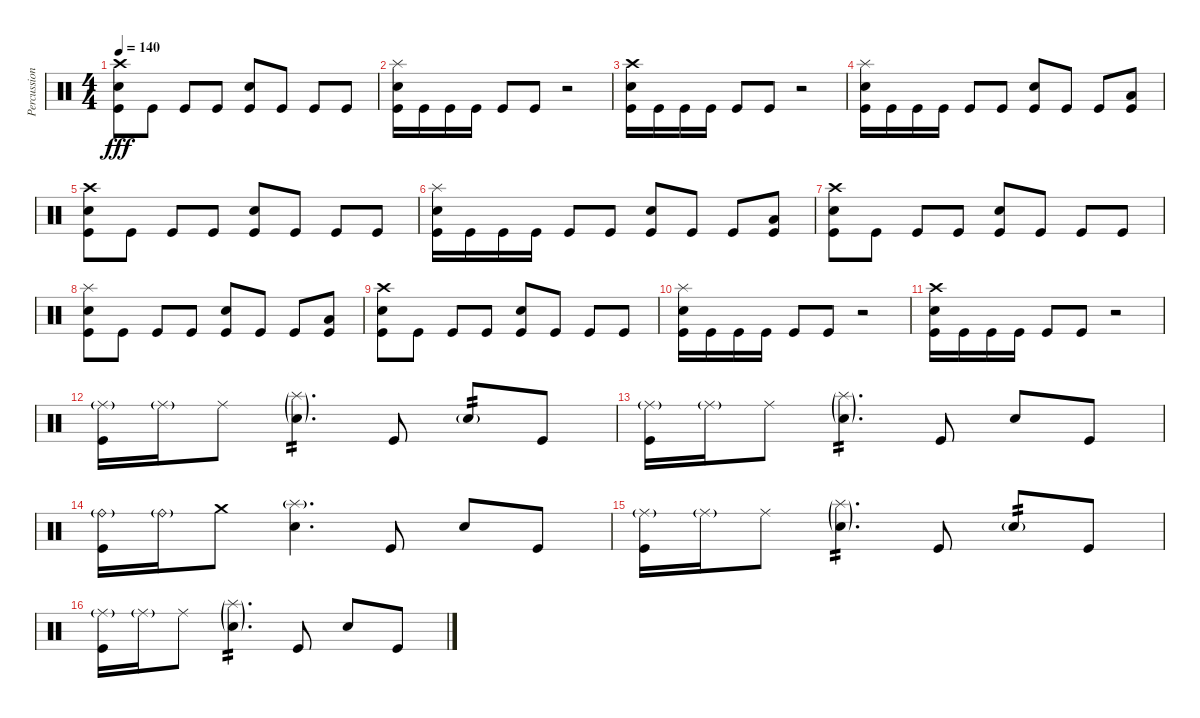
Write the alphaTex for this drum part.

\track ("Percussion" "Percussion") {instrument percussion}
\staff {score}
\articulation defaults
\ts (4 4)
\tempo 140
\clef neutral
\ks c
("Crash high (hit)" "Snare (hit) 2" "Kick (hit)").8{dy fff} "Kick (hit)".8 "Kick (hit)".8 "Kick (hit)".8 ("Snare (hit) 2" "Kick (hit)").8 "Kick (hit)".8 "Kick (hit)".8 "Kick (hit)".8 |
("Splash (hit)" "Snare (hit) 2" "Kick (hit)").16 "Kick (hit)".16 "Kick (hit)".16 "Kick (hit)".16 "Kick (hit)".8 "Kick (hit)".8 r.2 |
("Crash high (hit)" "Snare (hit) 2" "Kick (hit)").16 "Kick (hit)".16 "Kick (hit)".16 "Kick (hit)".16 "Kick (hit)".8 "Kick (hit)".8 r.2 |
("Splash (hit)" "Snare (hit) 2" "Kick (hit)").16 "Kick (hit)".16 "Kick (hit)".16 "Kick (hit)".16 "Kick (hit)".8 "Kick (hit)".8 ("Snare (hit) 2" "Kick (hit)").8 "Kick (hit)".8 "Kick (hit)".8 ("Low Floor Tom (hit)" "Kick (hit)").8 |
("Crash high (hit)" "Snare (hit) 2" "Kick (hit)").8 "Kick (hit)".8 "Kick (hit)".8 "Kick (hit)".8 ("Snare (hit) 2" "Kick (hit)").8 "Kick (hit)".8 "Kick (hit)".8 "Kick (hit)".8 |
("Splash (hit)" "Snare (hit) 2" "Kick (hit)").16 "Kick (hit)".16 "Kick (hit)".16 "Kick (hit)".16 "Kick (hit)".8 "Kick (hit)".8 ("Snare (hit) 2" "Kick (hit)").8 "Kick (hit)".8 "Kick (hit)".8 ("Low Floor Tom (hit)" "Kick (hit)").8 |
("Crash high (hit)" "Snare (hit) 2" "Kick (hit)").8 "Kick (hit)".8 "Kick (hit)".8 "Kick (hit)".8 ("Snare (hit) 2" "Kick (hit)").8 "Kick (hit)".8 "Kick (hit)".8 "Kick (hit)".8 |
("Splash (hit)" "Snare (hit) 2" "Kick (hit)").8 "Kick (hit)".8 "Kick (hit)".8 "Kick (hit)".8 ("Snare (hit) 2" "Kick (hit)").8 "Kick (hit)".8 "Kick (hit)".8 ("Low Floor Tom (hit)" "Kick (hit)").8 |
("Crash high (hit)" "Snare (hit) 2" "Kick (hit)").8 "Kick (hit)".8 "Kick (hit)".8 "Kick (hit)".8 ("Snare (hit) 2" "Kick (hit)").8 "Kick (hit)".8 "Kick (hit)".8 "Kick (hit)".8 |
("Splash (hit)" "Snare (hit) 2" "Kick (hit)").16 "Kick (hit)".16 "Kick (hit)".16 "Kick (hit)".16 "Kick (hit)".8 "Kick (hit)".8 r.2 |
("Crash high (hit)" "Snare (hit) 2" "Kick (hit)").16 "Kick (hit)".16 "Kick (hit)".16 "Kick (hit)".16 "Kick (hit)".8 "Kick (hit)".8 r.2 |
("Ride (middle)"{g} "Kick (hit)").16 "Ride (middle)"{g}.16 "Ride (middle)".8 ("Splash (hit)"{g} "Snare (hit) 2"{g}).4{d tp 2} "Kick (hit)".8 "Snare (hit) 2"{g}.8{tp 2} "Kick (hit)".8 |
("Ride (middle)"{g} "Kick (hit)").16 "Ride (middle)"{g}.16 "Ride (middle)".8 ("Splash (hit)"{g} "Snare (hit) 2"{g}).4{d tp 2} "Kick (hit)".8 "Snare (hit) 2".8 "Kick (hit)".8 |
("Ride (bell)"{g} "Kick (hit)").16 "Ride (bell)"{g}.16 "Crash medium (hit)".8 ("Splash (hit)"{g} "Snare (hit) 2").4{d} "Kick (hit)".8 "Snare (hit) 2".8 "Kick (hit)".8 |
("Ride (middle)"{g} "Kick (hit)").16 "Ride (middle)"{g}.16 "Ride (middle)".8 ("Splash (hit)"{g} "Snare (hit) 2"{g}).4{d tp 2} "Kick (hit)".8 "Snare (hit) 2"{g}.8{tp 2} "Kick (hit)".8 |
("Ride (middle)"{g} "Kick (hit)").16 "Ride (middle)"{g}.16 "Ride (middle)".8 ("Splash (hit)"{g} "Snare (hit) 2"{g}).4{d tp 2} "Kick (hit)".8 "Snare (hit) 2".8 "Kick (hit)".8
